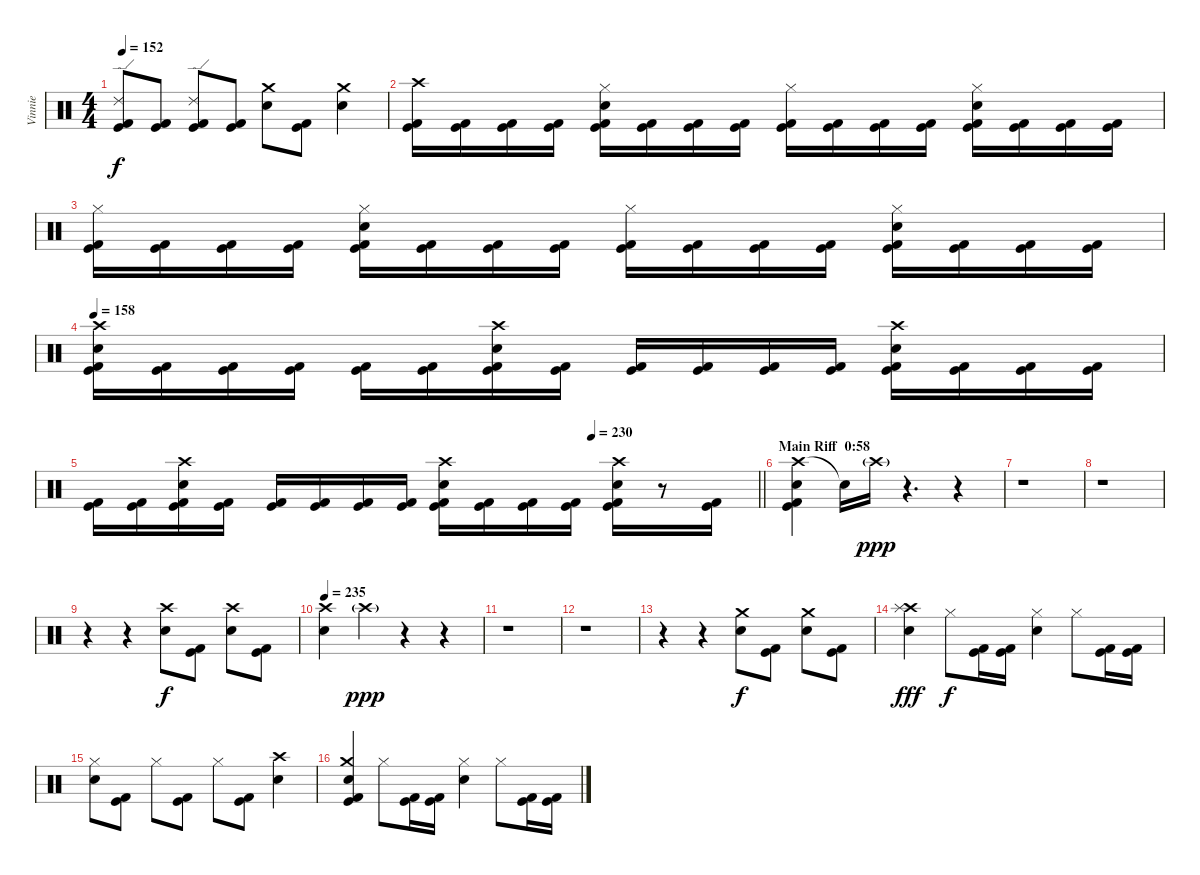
\track ("Vinnie" "Vinnie") {instrument percussion}
\staff {score}
\articulation defaults
\ts (4 4)
\tempo 152
\clef neutral
\ks c
("Ride (edge) 2" "Kick (hit)" "Kick (hit) 2").8{dy f} ("Kick (hit)" "Kick (hit) 2").8 ("Ride (edge) 2" "Kick (hit)" "Kick (hit) 2").8 ("Kick (hit)" "Kick (hit) 2").8 ("Crash medium (hit)" "Electric Snare (hit)").8 ("Kick (hit)" "Kick (hit) 2").8 ("Crash medium (hit)" "Electric Snare (hit)").4 |
("Crash high (hit)" "Kick (hit)" "Kick (hit) 2").16 ("Kick (hit)" "Kick (hit) 2").16 ("Kick (hit)" "Kick (hit) 2").16 ("Kick (hit)" "Kick (hit) 2").16 ("Hi-Hat (closed)" "Electric Snare (hit)" "Kick (hit)" "Kick (hit) 2").16 ("Kick (hit)" "Kick (hit) 2").16 ("Kick (hit)" "Kick (hit) 2").16 ("Kick (hit)" "Kick (hit) 2").16 ("Hi-Hat (closed)" "Kick (hit)" "Kick (hit) 2").16 ("Kick (hit)" "Kick (hit) 2").16 ("Kick (hit)" "Kick (hit) 2").16 ("Kick (hit)" "Kick (hit) 2").16 ("Hi-Hat (closed)" "Electric Snare (hit)" "Kick (hit)" "Kick (hit) 2").16 ("Kick (hit)" "Kick (hit) 2").16 ("Kick (hit)" "Kick (hit) 2").16 ("Kick (hit)" "Kick (hit) 2").16 |
("Hi-Hat (closed)" "Kick (hit)" "Kick (hit) 2").16 ("Kick (hit)" "Kick (hit) 2").16 ("Kick (hit)" "Kick (hit) 2").16 ("Kick (hit)" "Kick (hit) 2").16 ("Hi-Hat (closed)" "Electric Snare (hit)" "Kick (hit)" "Kick (hit) 2").16 ("Kick (hit)" "Kick (hit) 2").16 ("Kick (hit)" "Kick (hit) 2").16 ("Kick (hit)" "Kick (hit) 2").16 ("Hi-Hat (closed)" "Kick (hit)" "Kick (hit) 2").16 ("Kick (hit)" "Kick (hit) 2").16 ("Kick (hit)" "Kick (hit) 2").16 ("Kick (hit)" "Kick (hit) 2").16 ("Hi-Hat (closed)" "Electric Snare (hit)" "Kick (hit)" "Kick (hit) 2").16 ("Kick (hit)" "Kick (hit) 2").16 ("Kick (hit)" "Kick (hit) 2").16 ("Kick (hit)" "Kick (hit) 2").16 |
\tempo 158
("Crash high (hit)" "Electric Snare (hit)" "Kick (hit)" "Kick (hit) 2").16 ("Kick (hit)" "Kick (hit) 2").16 ("Kick (hit)" "Kick (hit) 2").16 ("Kick (hit)" "Kick (hit) 2").16 ("Kick (hit)" "Kick (hit) 2").16 ("Kick (hit)" "Kick (hit) 2").16 ("Crash high (hit)" "Electric Snare (hit)" "Kick (hit)" "Kick (hit) 2").16 ("Kick (hit)" "Kick (hit) 2").16 ("Kick (hit)" "Kick (hit) 2").16 ("Kick (hit)" "Kick (hit) 2").16 ("Kick (hit)" "Kick (hit) 2").16 ("Kick (hit)" "Kick (hit) 2").16 ("Crash high (hit)" "Electric Snare (hit)" "Kick (hit)" "Kick (hit) 2").16 ("Kick (hit)" "Kick (hit) 2").16 ("Kick (hit)" "Kick (hit) 2").16 ("Kick (hit)" "Kick (hit) 2").16 |
\tempo (230 0.75)
\barLineRight lightlight
("Kick (hit)" "Kick (hit) 2").16 ("Kick (hit)" "Kick (hit) 2").16 ("Crash high (hit)" "Electric Snare (hit)" "Kick (hit)" "Kick (hit) 2").16 ("Kick (hit)" "Kick (hit) 2").16 ("Kick (hit)" "Kick (hit) 2").16 ("Kick (hit)" "Kick (hit) 2").16 ("Kick (hit)" "Kick (hit) 2").16 ("Kick (hit)" "Kick (hit) 2").16 ("Crash high (hit)" "Electric Snare (hit)" "Kick (hit)" "Kick (hit) 2").16 ("Kick (hit)" "Kick (hit) 2").16 ("Kick (hit)" "Kick (hit) 2").16 ("Kick (hit)" "Kick (hit) 2").16 ("Crash high (hit)" "Electric Snare (hit)" "Kick (hit)" "Kick (hit) 2").16 r.8 ("Kick (hit)" "Kick (hit) 2").16 |
\section ("" "Main Riff  0:58")
("Crash high (hit)" "Electric Snare (hit)" "Kick (hit)" "Kick (hit) 2").4{bd 60} "Snare (hit)"{t}.16 "Crash high (hit)"{g}.16{dy ppp} r.4{d} r.4 |
r.1 |
r.1 |
r.4 r.4 ("Crash high (hit)" "Electric Snare (hit)").8{dy f} ("Kick (hit)" "Kick (hit) 2").8 ("Crash high (hit)" "Electric Snare (hit)").8 ("Kick (hit)" "Kick (hit) 2").8 |
\tempo 235
("Crash high (hit)" "Electric Snare (hit)").4 "Crash high (hit)"{g}.4{dy ppp} r.4 r.4 |
r.1 |
r.1 |
r.4 r.4 ("Crash medium (hit)" "Electric Snare (hit)").8{dy f} ("Kick (hit)" "Kick (hit) 2").8 ("Crash medium (hit)" "Electric Snare (hit)").8 ("Kick (hit)" "Kick (hit) 2").8 |
("Crash high (hit)" "Splash (hit)" "Electric Snare (hit)").4{dy fff} "Hi-Hat (closed)".8{dy f} ("Kick (hit)" "Kick (hit) 2").16 ("Kick (hit)" "Kick (hit) 2").16 ("Hi-Hat (closed)" "Electric Snare (hit)").4 "Hi-Hat (closed)".8 ("Kick (hit)" "Kick (hit) 2").16 ("Kick (hit)" "Kick (hit) 2").16 |
("Hi-Hat (closed)" "Electric Snare (hit)").8 ("Kick (hit)" "Kick (hit) 2").8 "Hi-Hat (closed)".8 ("Kick (hit)" "Kick (hit) 2").8 "Hi-Hat (closed)".8 ("Kick (hit)" "Kick (hit) 2").8 ("Crash high (hit)" "Electric Snare (hit)").4 |
("Crash medium (hit)" "Electric Snare (hit)" "Kick (hit)" "Kick (hit) 2").4{bd 30} "Hi-Hat (closed)".8 ("Kick (hit)" "Kick (hit) 2").16 ("Kick (hit)" "Kick (hit) 2").16 ("Hi-Hat (closed)" "Electric Snare (hit)").4 "Hi-Hat (closed)".8 ("Kick (hit)" "Kick (hit) 2").16 ("Kick (hit)" "Kick (hit) 2").16
